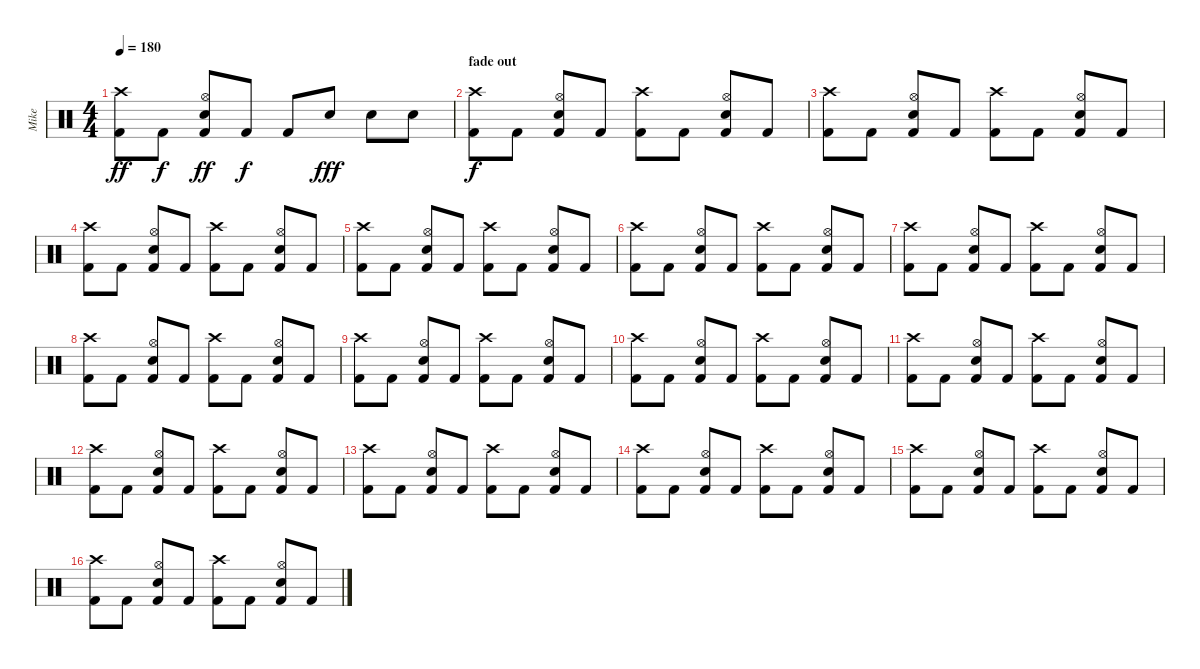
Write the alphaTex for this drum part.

\track ("Mike" "Mike") {instrument percussion}
\staff {score}
\articulation defaults
\ts (4 4)
\tempo 180
\clef neutral
\ks c
("Crash high (hit)" "Kick (hit) 2").8{dy ff} "Kick (hit) 2".8{dy f} ("Hi-Hat (open)" "Snare (hit) 2" "Kick (hit) 2").8{dy ff} "Kick (hit) 2".8{dy f} "Kick (hit) 2".8 "Snare (hit) 2".8{dy fff} "Snare (hit) 2".8 "Snare (hit) 2".8 |
\section ("" "fade out")
("Crash high (hit)" "Kick (hit) 2").8{dy f volume 12} "Kick (hit) 2".8 ("Hi-Hat (open)" "Snare (hit) 2" "Kick (hit) 2").8 "Kick (hit) 2".8 ("Crash high (hit)" "Kick (hit) 2").8 "Kick (hit) 2".8 ("Hi-Hat (open)" "Snare (hit) 2" "Kick (hit) 2").8 "Kick (hit) 2".8 |
("Crash high (hit)" "Kick (hit) 2").8 "Kick (hit) 2".8 ("Hi-Hat (open)" "Snare (hit) 2" "Kick (hit) 2").8 "Kick (hit) 2".8 ("Crash high (hit)" "Kick (hit) 2").8 "Kick (hit) 2".8 ("Hi-Hat (open)" "Snare (hit) 2" "Kick (hit) 2").8 "Kick (hit) 2".8 |
("Crash high (hit)" "Kick (hit) 2").8 "Kick (hit) 2".8 ("Hi-Hat (open)" "Snare (hit) 2" "Kick (hit) 2").8 "Kick (hit) 2".8 ("Crash high (hit)" "Kick (hit) 2").8 "Kick (hit) 2".8 ("Hi-Hat (open)" "Snare (hit) 2" "Kick (hit) 2").8 "Kick (hit) 2".8 |
("Crash high (hit)" "Kick (hit) 2").8{volume 12} "Kick (hit) 2".8 ("Hi-Hat (open)" "Snare (hit) 2" "Kick (hit) 2").8 "Kick (hit) 2".8 ("Crash high (hit)" "Kick (hit) 2").8 "Kick (hit) 2".8 ("Hi-Hat (open)" "Snare (hit) 2" "Kick (hit) 2").8 "Kick (hit) 2".8 |
("Crash high (hit)" "Kick (hit) 2").8 "Kick (hit) 2".8 ("Hi-Hat (open)" "Snare (hit) 2" "Kick (hit) 2").8 "Kick (hit) 2".8 ("Crash high (hit)" "Kick (hit) 2").8 "Kick (hit) 2".8 ("Hi-Hat (open)" "Snare (hit) 2" "Kick (hit) 2").8 "Kick (hit) 2".8 |
("Crash high (hit)" "Kick (hit) 2").8 "Kick (hit) 2".8 ("Hi-Hat (open)" "Snare (hit) 2" "Kick (hit) 2").8 "Kick (hit) 2".8 ("Crash high (hit)" "Kick (hit) 2").8 "Kick (hit) 2".8 ("Hi-Hat (open)" "Snare (hit) 2" "Kick (hit) 2").8 "Kick (hit) 2".8 |
("Crash high (hit)" "Kick (hit) 2").8{volume 10} "Kick (hit) 2".8 ("Hi-Hat (open)" "Snare (hit) 2" "Kick (hit) 2").8 "Kick (hit) 2".8 ("Crash high (hit)" "Kick (hit) 2").8 "Kick (hit) 2".8 ("Hi-Hat (open)" "Snare (hit) 2" "Kick (hit) 2").8 "Kick (hit) 2".8 |
("Crash high (hit)" "Kick (hit) 2").8 "Kick (hit) 2".8 ("Hi-Hat (open)" "Snare (hit) 2" "Kick (hit) 2").8 "Kick (hit) 2".8 ("Crash high (hit)" "Kick (hit) 2").8 "Kick (hit) 2".8 ("Hi-Hat (open)" "Snare (hit) 2" "Kick (hit) 2").8 "Kick (hit) 2".8 |
("Crash high (hit)" "Kick (hit) 2").8 "Kick (hit) 2".8 ("Hi-Hat (open)" "Snare (hit) 2" "Kick (hit) 2").8 "Kick (hit) 2".8 ("Crash high (hit)" "Kick (hit) 2").8 "Kick (hit) 2".8 ("Hi-Hat (open)" "Snare (hit) 2" "Kick (hit) 2").8 "Kick (hit) 2".8 |
("Crash high (hit)" "Kick (hit) 2").8{volume 9} "Kick (hit) 2".8 ("Hi-Hat (open)" "Snare (hit) 2" "Kick (hit) 2").8 "Kick (hit) 2".8 ("Crash high (hit)" "Kick (hit) 2").8 "Kick (hit) 2".8 ("Hi-Hat (open)" "Snare (hit) 2" "Kick (hit) 2").8 "Kick (hit) 2".8 |
("Crash high (hit)" "Kick (hit) 2").8 "Kick (hit) 2".8 ("Hi-Hat (open)" "Snare (hit) 2" "Kick (hit) 2").8 "Kick (hit) 2".8 ("Crash high (hit)" "Kick (hit) 2").8 "Kick (hit) 2".8 ("Hi-Hat (open)" "Snare (hit) 2" "Kick (hit) 2").8 "Kick (hit) 2".8 |
("Crash high (hit)" "Kick (hit) 2").8 "Kick (hit) 2".8 ("Hi-Hat (open)" "Snare (hit) 2" "Kick (hit) 2").8 "Kick (hit) 2".8 ("Crash high (hit)" "Kick (hit) 2").8 "Kick (hit) 2".8 ("Hi-Hat (open)" "Snare (hit) 2" "Kick (hit) 2").8 "Kick (hit) 2".8 |
("Crash high (hit)" "Kick (hit) 2").8{volume 8} "Kick (hit) 2".8 ("Hi-Hat (open)" "Snare (hit) 2" "Kick (hit) 2").8 "Kick (hit) 2".8 ("Crash high (hit)" "Kick (hit) 2").8 "Kick (hit) 2".8 ("Hi-Hat (open)" "Snare (hit) 2" "Kick (hit) 2").8 "Kick (hit) 2".8 |
("Crash high (hit)" "Kick (hit) 2").8 "Kick (hit) 2".8 ("Hi-Hat (open)" "Snare (hit) 2" "Kick (hit) 2").8 "Kick (hit) 2".8 ("Crash high (hit)" "Kick (hit) 2").8 "Kick (hit) 2".8 ("Hi-Hat (open)" "Snare (hit) 2" "Kick (hit) 2").8 "Kick (hit) 2".8 |
("Crash high (hit)" "Kick (hit) 2").8 "Kick (hit) 2".8 ("Hi-Hat (open)" "Snare (hit) 2" "Kick (hit) 2").8 "Kick (hit) 2".8 ("Crash high (hit)" "Kick (hit) 2").8 "Kick (hit) 2".8 ("Hi-Hat (open)" "Snare (hit) 2" "Kick (hit) 2").8 "Kick (hit) 2".8
